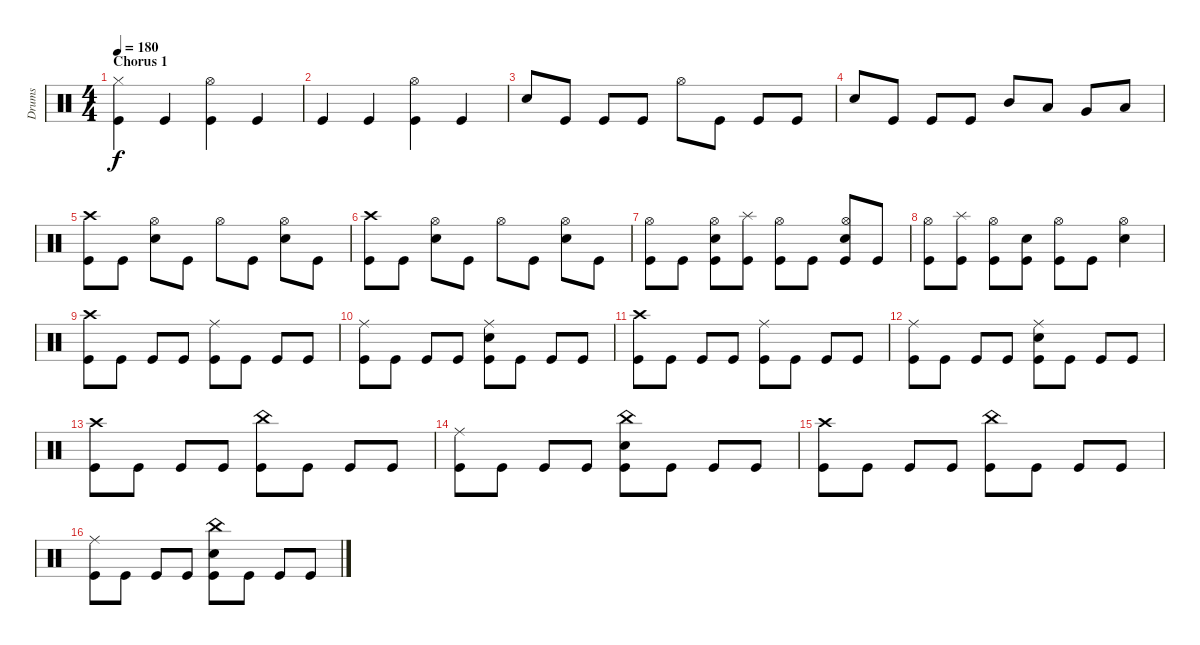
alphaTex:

\track ("Drums" "Drums") {instrument percussion}
\staff {score}
\articulation defaults
\ts (4 4)
\section ("" "Chorus 1")
\tempo 180
\clef neutral
\ks c
("Hi-Hat (closed)" "Kick (hit)").4{dy f} "Kick (hit)".4 ("Hi-Hat (open)" "Kick (hit)").4 "Kick (hit)".4 |
"Kick (hit)".4 "Kick (hit)".4 ("Hi-Hat (open)" "Kick (hit)").4 "Kick (hit)".4 |
"Snare (hit) 2".8 "Kick (hit)".8 "Kick (hit)".8 "Kick (hit)".8 "Hi-Hat (open)".8 "Kick (hit)".8 "Kick (hit)".8 "Kick (hit)".8 |
"Snare (hit) 2".8 "Kick (hit)".8 "Kick (hit)".8 "Kick (hit)".8 "Mid Tom (hit)".8 "Low Tom (hit)".8 "Very Low Tom (hit)".8 "Low Floor Tom (hit)".8 |
("Crash high (hit)" "Kick (hit)").8 "Kick (hit)".8 ("Snare (hit) 2" "Hi-Hat (open)").8 "Kick (hit)".8 "Hi-Hat (open)".8 "Kick (hit)".8 ("Snare (hit) 2" "Hi-Hat (open)").8 "Kick (hit)".8 |
("Crash high (hit)" "Kick (hit)").8 "Kick (hit)".8 ("Snare (hit) 2" "Hi-Hat (open)").8 "Kick (hit)".8 "Hi-Hat (open)".8 "Kick (hit)".8 ("Snare (hit) 2" "Hi-Hat (open)").8 "Kick (hit)".8 |
("Hi-Hat (open)" "Kick (hit)").8 "Kick (hit)".8 ("Snare (hit) 2" "Hi-Hat (open)" "Kick (hit)").8 ("Splash (hit)" "Kick (hit)").8 ("Hi-Hat (open)" "Kick (hit)").8 "Kick (hit)".8 ("Snare (hit) 2" "Hi-Hat (open)" "Kick (hit)").8 "Kick (hit)".8 |
("Hi-Hat (open)" "Kick (hit)").8 ("Splash (hit)" "Kick (hit)").8 ("Hi-Hat (open)" "Kick (hit)").8 ("Snare (hit) 2" "Kick (hit)").8 ("Hi-Hat (open)" "Kick (hit)").8 "Kick (hit)".8 ("Snare (hit) 2" "Hi-Hat (open)").4 |
("Crash high (hit)" "Kick (hit)").8 "Kick (hit)".8 "Kick (hit)".8 "Kick (hit)".8 ("Ride (middle)" "Kick (hit)").8 "Kick (hit)".8 "Kick (hit)".8 "Kick (hit)".8 |
("Ride (middle)" "Kick (hit)").8 "Kick (hit)".8 "Kick (hit)".8 "Kick (hit)".8 ("Ride (middle)" "Snare (hit) 2" "Kick (hit)").8 "Kick (hit)".8 "Kick (hit)".8 "Kick (hit)".8 |
("Crash high (hit)" "Kick (hit)").8 "Kick (hit)".8 "Kick (hit)".8 "Kick (hit)".8 ("Ride (middle)" "Kick (hit)").8 "Kick (hit)".8 "Kick (hit)".8 "Kick (hit)".8 |
("Ride (middle)" "Kick (hit)").8 "Kick (hit)".8 "Kick (hit)".8 "Kick (hit)".8 ("Ride (middle)" "Snare (hit) 2" "Kick (hit)").8 "Kick (hit)".8 "Kick (hit)".8 "Kick (hit)".8 |
("Crash high (hit)" "Kick (hit)").8 "Kick (hit)".8 "Kick (hit)".8 "Kick (hit)".8 ("China (hit)" "Kick (hit)").8 "Kick (hit)".8 "Kick (hit)".8 "Kick (hit)".8 |
("Ride (middle)" "Kick (hit)").8 "Kick (hit)".8 "Kick (hit)".8 "Kick (hit)".8 ("China (hit)" "Snare (hit) 2" "Kick (hit)").8 "Kick (hit)".8 "Kick (hit)".8 "Kick (hit)".8 |
("Crash high (hit)" "Kick (hit)").8 "Kick (hit)".8 "Kick (hit)".8 "Kick (hit)".8 ("China (hit)" "Kick (hit)").8 "Kick (hit)".8 "Kick (hit)".8 "Kick (hit)".8 |
("Ride (middle)" "Kick (hit)").8 "Kick (hit)".8 "Kick (hit)".8 "Kick (hit)".8 ("China (hit)" "Snare (hit) 2" "Kick (hit)").8 "Kick (hit)".8 "Kick (hit)".8 "Kick (hit)".8
